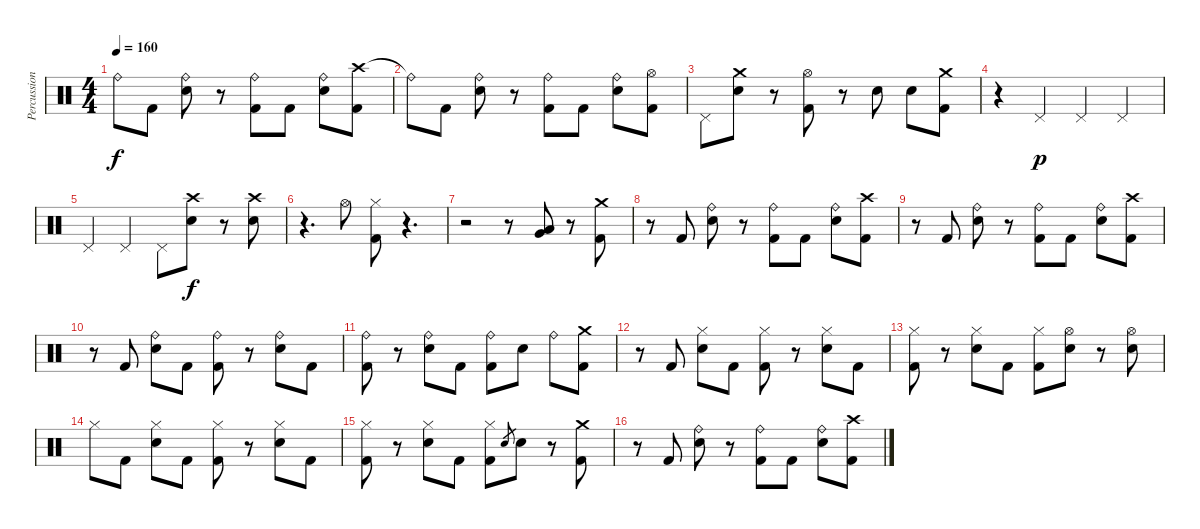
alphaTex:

\track ("Percussion" "Percussion") {instrument percussion}
\staff {score}
\articulation defaults
\ts (4 4)
\tempo 160
\clef neutral
\ks c "Ride (bell)"{t}.8{dy f} "Kick (hit) 2".8
("Ride (bell)" "Electric Snare (hit)").8 r.8 ("Ride (bell)" "Kick (hit) 2").8 "Kick (hit) 2".8 ("Ride (bell)" "Electric Snare (hit)").8 ("Crash high (hit)" "Kick (hit) 2").8 |
"Ride (bell)"{t}.8 "Kick (hit) 2".8 ("Ride (bell)" "Electric Snare (hit)").8 r.8 ("Ride (bell)" "Kick (hit) 2").8 "Kick (hit) 2".8 ("Ride (bell)" "Electric Snare (hit)").8 ("Hi-Hat (open)" "Kick (hit) 2").8 |
"Pedal Hi-Hat (hit)".8 ("Crash medium (hit)" "Electric Snare (hit)").8 r.8 ("Hi-Hat (open)" "Kick (hit) 2").8 r.8 "Electric Snare (hit)".8 "Electric Snare (hit)".8 ("Crash medium (hit)" "Kick (hit) 2").8 |
r.4 "Pedal Hi-Hat (hit)".4{dy p} "Pedal Hi-Hat (hit)".4 "Pedal Hi-Hat (hit)".4 |
"Pedal Hi-Hat (hit)".4 "Pedal Hi-Hat (hit)".4 "Pedal Hi-Hat (hit)".8 ("Crash high (hit)" "Electric Snare (hit)").8{dy f} r.8 ("Crash high (hit)" "Electric Snare (hit)").8 |
r.4{d} "Hi-Hat (open)".8 ("Hi-Hat (closed)" "Kick (hit) 2").8 r.4{d} |
r.2 r.8 ("Low Tom (hit)" "Very Low Tom (hit)").8 r.8 ("Crash medium (hit)" "Kick (hit) 2").8 |
r.8 "Kick (hit) 2".8 ("Ride (bell)" "Electric Snare (hit)").8 r.8 ("Ride (bell)" "Kick (hit) 2").8 "Kick (hit) 2".8 ("Ride (bell)" "Electric Snare (hit)").8 ("Crash high (hit)" "Kick (hit) 2").8 |
r.8 "Kick (hit) 2".8 ("Ride (bell)" "Electric Snare (hit)").8 r.8 ("Ride (bell)" "Kick (hit) 2").8 "Kick (hit) 2".8 ("Ride (bell)" "Electric Snare (hit)").8 ("Crash high (hit)" "Kick (hit) 2").8 |
r.8 "Kick (hit) 2".8 ("Ride (bell)" "Electric Snare (hit)").8 "Kick (hit) 2".8 ("Ride (bell)" "Kick (hit) 2").8 r.8 ("Ride (bell)" "Electric Snare (hit)").8 "Kick (hit) 2".8 |
("Ride (bell)" "Kick (hit) 2").8 r.8 ("Ride (bell)" "Electric Snare (hit)").8 "Kick (hit) 2".8 ("Ride (bell)" "Kick (hit) 2").8 "Electric Snare (hit)".8 "Ride (bell)".8 ("Crash medium (hit)" "Kick (hit) 2").8 |
r.8 "Kick (hit) 2".8 ("Hi-Hat (closed)" "Electric Snare (hit)").8 "Kick (hit) 2".8 ("Hi-Hat (closed)" "Kick (hit) 2").8 r.8 ("Hi-Hat (closed)" "Electric Snare (hit)").8 "Kick (hit) 2".8 |
("Hi-Hat (closed)" "Kick (hit) 2").8 r.8 ("Hi-Hat (closed)" "Electric Snare (hit)").8 "Kick (hit) 2".8 ("Hi-Hat (closed)" "Kick (hit) 2").8 ("Hi-Hat (open)" "Electric Snare (hit)").8 r.8 ("Hi-Hat (open)" "Electric Snare (hit)").8 |
"Hi-Hat (closed)".8 "Kick (hit) 2".8 ("Hi-Hat (closed)" "Electric Snare (hit)").8 "Kick (hit) 2".8 ("Hi-Hat (closed)" "Kick (hit) 2").8 r.8 ("Hi-Hat (closed)" "Electric Snare (hit)").8 "Kick (hit) 2".8 |
("Hi-Hat (closed)" "Kick (hit) 2").8 r.8 ("Hi-Hat (closed)" "Electric Snare (hit)").8 "Kick (hit) 2".8 ("Hi-Hat (closed)" "Kick (hit) 2").8 "Electric Snare (hit)".8{gr} "Electric Snare (hit)".8 r.8 ("Crash medium (hit)" "Kick (hit) 2").8 |
r.8 "Kick (hit) 2".8 ("Ride (bell)" "Electric Snare (hit)").8 r.8 ("Ride (bell)" "Kick (hit) 2").8 "Kick (hit) 2".8 ("Ride (bell)" "Electric Snare (hit)").8 ("Crash high (hit)" "Kick (hit) 2").8
